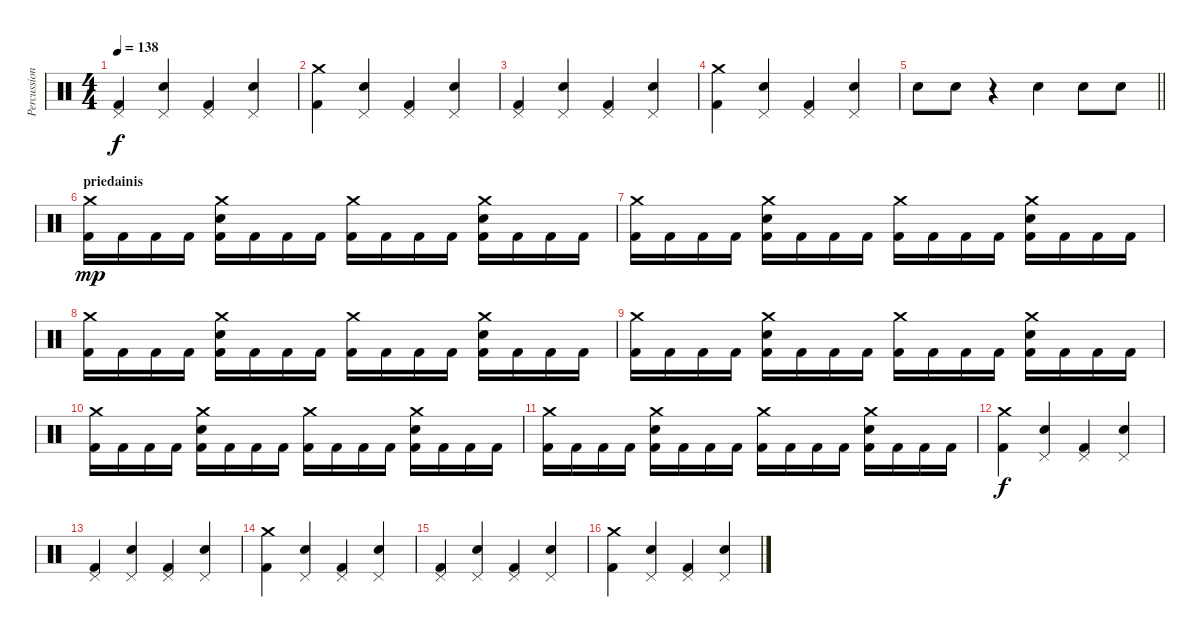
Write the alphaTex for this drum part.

\track ("Percussion" "Percussion") {instrument percussion}
\staff {score}
\articulation defaults
\ts (4 4)
\tempo 138
\clef neutral
\ks c
("Pedal Hi-Hat (hit)" "Kick (hit) 2").4{dy f} ("Pedal Hi-Hat (hit)" "Snare (hit) 2").4 ("Pedal Hi-Hat (hit)" "Kick (hit) 2").4 ("Pedal Hi-Hat (hit)" "Snare (hit) 2").4 |
("Crash medium (hit)" "Kick (hit) 2").4 ("Pedal Hi-Hat (hit)" "Snare (hit) 2").4 ("Pedal Hi-Hat (hit)" "Kick (hit) 2").4 ("Pedal Hi-Hat (hit)" "Snare (hit) 2").4 |
("Pedal Hi-Hat (hit)" "Kick (hit) 2").4 ("Pedal Hi-Hat (hit)" "Snare (hit) 2").4 ("Pedal Hi-Hat (hit)" "Kick (hit) 2").4 ("Pedal Hi-Hat (hit)" "Snare (hit) 2").4 |
("Crash medium (hit)" "Kick (hit) 2").4 ("Pedal Hi-Hat (hit)" "Snare (hit) 2").4 ("Pedal Hi-Hat (hit)" "Kick (hit) 2").4 ("Pedal Hi-Hat (hit)" "Snare (hit) 2").4 |
\barLineRight lightlight "Snare (hit) 2".8 "Snare (hit) 2".8
r.4 "Snare (hit) 2".4 "Snare (hit) 2".8 "Snare (hit) 2".8 |
\section ("" "priedainis")
("Crash medium (hit)" "Kick (hit) 2").16{dy mp} "Kick (hit) 2".16 "Kick (hit) 2".16 "Kick (hit) 2".16 ("Crash medium (hit)" "Snare (hit) 2" "Kick (hit) 2").16 "Kick (hit) 2".16 "Kick (hit) 2".16 "Kick (hit) 2".16 ("Crash medium (hit)" "Kick (hit) 2").16 "Kick (hit) 2".16 "Kick (hit) 2".16 "Kick (hit) 2".16 ("Crash medium (hit)" "Snare (hit) 2" "Kick (hit) 2").16 "Kick (hit) 2".16 "Kick (hit) 2".16 "Kick (hit) 2".16 |
("Crash medium (hit)" "Kick (hit) 2").16 "Kick (hit) 2".16 "Kick (hit) 2".16 "Kick (hit) 2".16 ("Crash medium (hit)" "Snare (hit) 2" "Kick (hit) 2").16 "Kick (hit) 2".16 "Kick (hit) 2".16 "Kick (hit) 2".16 ("Crash medium (hit)" "Kick (hit) 2").16 "Kick (hit) 2".16 "Kick (hit) 2".16 "Kick (hit) 2".16 ("Crash medium (hit)" "Snare (hit) 2" "Kick (hit) 2").16 "Kick (hit) 2".16 "Kick (hit) 2".16 "Kick (hit) 2".16 |
("Crash medium (hit)" "Kick (hit) 2").16 "Kick (hit) 2".16 "Kick (hit) 2".16 "Kick (hit) 2".16 ("Crash medium (hit)" "Snare (hit) 2" "Kick (hit) 2").16 "Kick (hit) 2".16 "Kick (hit) 2".16 "Kick (hit) 2".16 ("Crash medium (hit)" "Kick (hit) 2").16 "Kick (hit) 2".16 "Kick (hit) 2".16 "Kick (hit) 2".16 ("Crash medium (hit)" "Snare (hit) 2" "Kick (hit) 2").16 "Kick (hit) 2".16 "Kick (hit) 2".16 "Kick (hit) 2".16 |
("Crash medium (hit)" "Kick (hit) 2").16 "Kick (hit) 2".16 "Kick (hit) 2".16 "Kick (hit) 2".16 ("Crash medium (hit)" "Snare (hit) 2" "Kick (hit) 2").16 "Kick (hit) 2".16 "Kick (hit) 2".16 "Kick (hit) 2".16 ("Crash medium (hit)" "Kick (hit) 2").16 "Kick (hit) 2".16 "Kick (hit) 2".16 "Kick (hit) 2".16 ("Crash medium (hit)" "Snare (hit) 2" "Kick (hit) 2").16 "Kick (hit) 2".16 "Kick (hit) 2".16 "Kick (hit) 2".16 |
("Crash medium (hit)" "Kick (hit) 2").16 "Kick (hit) 2".16 "Kick (hit) 2".16 "Kick (hit) 2".16 ("Crash medium (hit)" "Snare (hit) 2" "Kick (hit) 2").16 "Kick (hit) 2".16 "Kick (hit) 2".16 "Kick (hit) 2".16 ("Crash medium (hit)" "Kick (hit) 2").16 "Kick (hit) 2".16 "Kick (hit) 2".16 "Kick (hit) 2".16 ("Crash medium (hit)" "Snare (hit) 2" "Kick (hit) 2").16 "Kick (hit) 2".16 "Kick (hit) 2".16 "Kick (hit) 2".16 |
("Crash medium (hit)" "Kick (hit) 2").16 "Kick (hit) 2".16 "Kick (hit) 2".16 "Kick (hit) 2".16 ("Crash medium (hit)" "Snare (hit) 2" "Kick (hit) 2").16 "Kick (hit) 2".16 "Kick (hit) 2".16 "Kick (hit) 2".16 ("Crash medium (hit)" "Kick (hit) 2").16 "Kick (hit) 2".16 "Kick (hit) 2".16 "Kick (hit) 2".16 ("Crash medium (hit)" "Snare (hit) 2" "Kick (hit) 2").16 "Kick (hit) 2".16 "Kick (hit) 2".16 "Kick (hit) 2".16 |
("Crash medium (hit)" "Kick (hit) 2").4{dy f} ("Pedal Hi-Hat (hit)" "Snare (hit) 2").4 ("Pedal Hi-Hat (hit)" "Kick (hit) 2").4 ("Pedal Hi-Hat (hit)" "Snare (hit) 2").4 |
("Pedal Hi-Hat (hit)" "Kick (hit) 2").4 ("Pedal Hi-Hat (hit)" "Snare (hit) 2").4 ("Pedal Hi-Hat (hit)" "Kick (hit) 2").4 ("Pedal Hi-Hat (hit)" "Snare (hit) 2").4 |
("Crash medium (hit)" "Kick (hit) 2").4 ("Pedal Hi-Hat (hit)" "Snare (hit) 2").4 ("Pedal Hi-Hat (hit)" "Kick (hit) 2").4 ("Pedal Hi-Hat (hit)" "Snare (hit) 2").4 |
("Pedal Hi-Hat (hit)" "Kick (hit) 2").4 ("Pedal Hi-Hat (hit)" "Snare (hit) 2").4 ("Pedal Hi-Hat (hit)" "Kick (hit) 2").4 ("Pedal Hi-Hat (hit)" "Snare (hit) 2").4 |
("Crash medium (hit)" "Kick (hit) 2").4 ("Pedal Hi-Hat (hit)" "Snare (hit) 2").4 ("Pedal Hi-Hat (hit)" "Kick (hit) 2").4 ("Pedal Hi-Hat (hit)" "Snare (hit) 2").4
